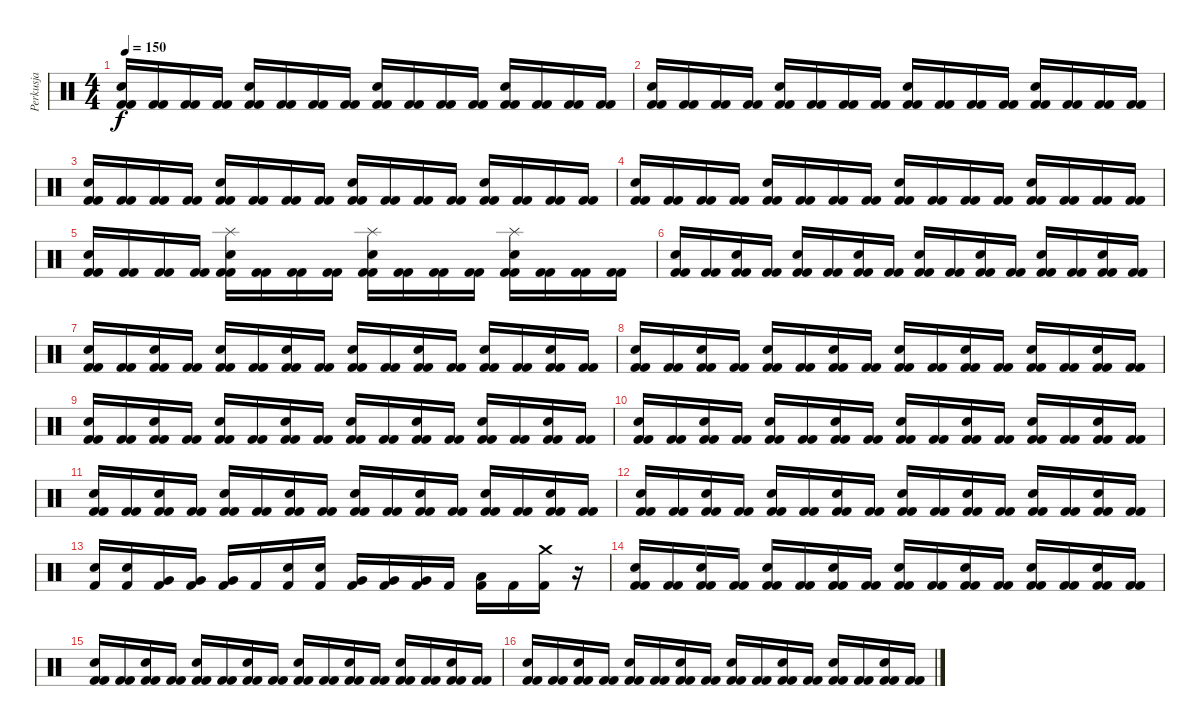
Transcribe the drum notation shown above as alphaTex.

\track ("Perkusja" "Perkusja") {instrument percussion}
\staff {score}
\articulation defaults
\ts (4 4)
\tempo 150
\clef neutral
\ks c
("Snare (hit) 2" "Kick (hit) 2" "Kick (hit) 2").16{dy f} ("Kick (hit) 2" "Kick (hit) 2").16 ("Kick (hit) 2" "Kick (hit) 2").16 ("Kick (hit) 2" "Kick (hit) 2").16 ("Electric Snare (hit)" "Kick (hit) 2" "Kick (hit) 2").16 ("Kick (hit) 2" "Kick (hit) 2").16 ("Kick (hit) 2" "Kick (hit) 2").16 ("Kick (hit) 2" "Kick (hit) 2").16 ("Snare (hit) 2" "Kick (hit) 2" "Kick (hit) 2").16 ("Kick (hit) 2" "Kick (hit) 2").16 ("Kick (hit) 2" "Kick (hit) 2").16 ("Kick (hit) 2" "Kick (hit) 2").16 ("Electric Snare (hit)" "Kick (hit) 2" "Kick (hit) 2").16 ("Kick (hit) 2" "Kick (hit) 2").16 ("Kick (hit) 2" "Kick (hit) 2").16 ("Kick (hit) 2" "Kick (hit) 2").16 |
("Snare (hit) 2" "Kick (hit) 2" "Kick (hit) 2").16 ("Kick (hit) 2" "Kick (hit) 2").16 ("Kick (hit) 2" "Kick (hit) 2").16 ("Kick (hit) 2" "Kick (hit) 2").16 ("Electric Snare (hit)" "Kick (hit) 2" "Kick (hit) 2").16 ("Kick (hit) 2" "Kick (hit) 2").16 ("Kick (hit) 2" "Kick (hit) 2").16 ("Kick (hit) 2" "Kick (hit) 2").16 ("Snare (hit) 2" "Kick (hit) 2" "Kick (hit) 2").16 ("Kick (hit) 2" "Kick (hit) 2").16 ("Kick (hit) 2" "Kick (hit) 2").16 ("Kick (hit) 2" "Kick (hit) 2").16 ("Electric Snare (hit)" "Kick (hit) 2" "Kick (hit) 2").16 ("Kick (hit) 2" "Kick (hit) 2").16 ("Kick (hit) 2" "Kick (hit) 2").16 ("Kick (hit) 2" "Kick (hit) 2").16 |
("Snare (hit) 2" "Kick (hit) 2" "Kick (hit) 2").16 ("Kick (hit) 2" "Kick (hit) 2").16 ("Kick (hit) 2" "Kick (hit) 2").16 ("Kick (hit) 2" "Kick (hit) 2").16 ("Electric Snare (hit)" "Kick (hit) 2" "Kick (hit) 2").16 ("Kick (hit) 2" "Kick (hit) 2").16 ("Kick (hit) 2" "Kick (hit) 2").16 ("Kick (hit) 2" "Kick (hit) 2").16 ("Snare (hit) 2" "Kick (hit) 2" "Kick (hit) 2").16 ("Kick (hit) 2" "Kick (hit) 2").16 ("Kick (hit) 2" "Kick (hit) 2").16 ("Kick (hit) 2" "Kick (hit) 2").16 ("Electric Snare (hit)" "Kick (hit) 2" "Kick (hit) 2").16 ("Kick (hit) 2" "Kick (hit) 2").16 ("Kick (hit) 2" "Kick (hit) 2").16 ("Kick (hit) 2" "Kick (hit) 2").16 |
("Snare (hit) 2" "Kick (hit) 2" "Kick (hit) 2").16 ("Kick (hit) 2" "Kick (hit) 2").16 ("Kick (hit) 2" "Kick (hit) 2").16 ("Kick (hit) 2" "Kick (hit) 2").16 ("Electric Snare (hit)" "Kick (hit) 2" "Kick (hit) 2").16 ("Kick (hit) 2" "Kick (hit) 2").16 ("Kick (hit) 2" "Kick (hit) 2").16 ("Kick (hit) 2" "Kick (hit) 2").16 ("Snare (hit) 2" "Kick (hit) 2" "Kick (hit) 2").16 ("Kick (hit) 2" "Kick (hit) 2").16 ("Kick (hit) 2" "Kick (hit) 2").16 ("Kick (hit) 2" "Kick (hit) 2").16 ("Electric Snare (hit)" "Kick (hit) 2" "Kick (hit) 2").16 ("Kick (hit) 2" "Kick (hit) 2").16 ("Kick (hit) 2" "Kick (hit) 2").16 ("Kick (hit) 2" "Kick (hit) 2").16 |
("Snare (hit) 2" "Kick (hit) 2" "Kick (hit) 2").16 ("Kick (hit) 2" "Kick (hit) 2").16 ("Kick (hit) 2" "Kick (hit) 2").16 ("Kick (hit) 2" "Kick (hit) 2").16 ("Splash (hit)" "Electric Snare (hit)" "Kick (hit) 2" "Kick (hit) 2").16 ("Kick (hit) 2" "Kick (hit) 2").16 ("Kick (hit) 2" "Kick (hit) 2").16 ("Kick (hit) 2" "Kick (hit) 2").16 ("Splash (hit)" "Snare (hit) 2" "Kick (hit) 2" "Kick (hit) 2").16 ("Kick (hit) 2" "Kick (hit) 2").16 ("Kick (hit) 2" "Kick (hit) 2").16 ("Kick (hit) 2" "Kick (hit) 2").16 ("Splash (hit)" "Electric Snare (hit)" "Kick (hit) 2" "Kick (hit) 2").16 ("Kick (hit) 2" "Kick (hit) 2").16 ("Kick (hit) 2" "Kick (hit) 2").16 ("Kick (hit) 2" "Kick (hit) 2").16 |
("Snare (hit) 2" "Kick (hit) 2" "Kick (hit) 2").16 ("Kick (hit) 2" "Kick (hit) 2").16 ("Snare (hit) 2" "Kick (hit) 2" "Kick (hit) 2").16 ("Kick (hit) 2" "Kick (hit) 2").16 ("Snare (hit) 2" "Kick (hit) 2" "Kick (hit) 2").16 ("Kick (hit) 2" "Kick (hit) 2").16 ("Snare (hit) 2" "Kick (hit) 2" "Kick (hit) 2").16 ("Kick (hit) 2" "Kick (hit) 2").16 ("Snare (hit) 2" "Kick (hit) 2" "Kick (hit) 2").16 ("Kick (hit) 2" "Kick (hit) 2").16 ("Snare (hit) 2" "Kick (hit) 2" "Kick (hit) 2").16 ("Kick (hit) 2" "Kick (hit) 2").16 ("Snare (hit) 2" "Kick (hit) 2" "Kick (hit) 2").16 ("Kick (hit) 2" "Kick (hit) 2").16 ("Snare (hit) 2" "Kick (hit) 2" "Kick (hit) 2").16 ("Kick (hit) 2" "Kick (hit) 2").16 |
("Snare (hit) 2" "Kick (hit) 2" "Kick (hit) 2").16 ("Kick (hit) 2" "Kick (hit) 2").16 ("Snare (hit) 2" "Kick (hit) 2" "Kick (hit) 2").16 ("Kick (hit) 2" "Kick (hit) 2").16 ("Snare (hit) 2" "Kick (hit) 2" "Kick (hit) 2").16 ("Kick (hit) 2" "Kick (hit) 2").16 ("Snare (hit) 2" "Kick (hit) 2" "Kick (hit) 2").16 ("Kick (hit) 2" "Kick (hit) 2").16 ("Snare (hit) 2" "Kick (hit) 2" "Kick (hit) 2").16 ("Kick (hit) 2" "Kick (hit) 2").16 ("Snare (hit) 2" "Kick (hit) 2" "Kick (hit) 2").16 ("Kick (hit) 2" "Kick (hit) 2").16 ("Snare (hit) 2" "Kick (hit) 2" "Kick (hit) 2").16 ("Kick (hit) 2" "Kick (hit) 2").16 ("Snare (hit) 2" "Kick (hit) 2" "Kick (hit) 2").16 ("Kick (hit) 2" "Kick (hit) 2").16 |
("Snare (hit) 2" "Kick (hit) 2" "Kick (hit) 2").16 ("Kick (hit) 2" "Kick (hit) 2").16 ("Snare (hit) 2" "Kick (hit) 2" "Kick (hit) 2").16 ("Kick (hit) 2" "Kick (hit) 2").16 ("Snare (hit) 2" "Kick (hit) 2" "Kick (hit) 2").16 ("Kick (hit) 2" "Kick (hit) 2").16 ("Snare (hit) 2" "Kick (hit) 2" "Kick (hit) 2").16 ("Kick (hit) 2" "Kick (hit) 2").16 ("Snare (hit) 2" "Kick (hit) 2" "Kick (hit) 2").16 ("Kick (hit) 2" "Kick (hit) 2").16 ("Snare (hit) 2" "Kick (hit) 2" "Kick (hit) 2").16 ("Kick (hit) 2" "Kick (hit) 2").16 ("Snare (hit) 2" "Kick (hit) 2" "Kick (hit) 2").16 ("Kick (hit) 2" "Kick (hit) 2").16 ("Snare (hit) 2" "Kick (hit) 2" "Kick (hit) 2").16 ("Kick (hit) 2" "Kick (hit) 2").16 |
("Snare (hit) 2" "Kick (hit) 2" "Kick (hit) 2").16 ("Kick (hit) 2" "Kick (hit) 2").16 ("Snare (hit) 2" "Kick (hit) 2" "Kick (hit) 2").16 ("Kick (hit) 2" "Kick (hit) 2").16 ("Snare (hit) 2" "Kick (hit) 2" "Kick (hit) 2").16 ("Kick (hit) 2" "Kick (hit) 2").16 ("Snare (hit) 2" "Kick (hit) 2" "Kick (hit) 2").16 ("Kick (hit) 2" "Kick (hit) 2").16 ("Snare (hit) 2" "Kick (hit) 2" "Kick (hit) 2").16 ("Kick (hit) 2" "Kick (hit) 2").16 ("Snare (hit) 2" "Kick (hit) 2" "Kick (hit) 2").16 ("Kick (hit) 2" "Kick (hit) 2").16 ("Snare (hit) 2" "Kick (hit) 2" "Kick (hit) 2").16 ("Kick (hit) 2" "Kick (hit) 2").16 ("Snare (hit) 2" "Kick (hit) 2" "Kick (hit) 2").16 ("Kick (hit) 2" "Kick (hit) 2").16 |
("Snare (hit) 2" "Kick (hit) 2" "Kick (hit) 2").16 ("Kick (hit) 2" "Kick (hit) 2").16 ("Snare (hit) 2" "Kick (hit) 2" "Kick (hit) 2").16 ("Kick (hit) 2" "Kick (hit) 2").16 ("Snare (hit) 2" "Kick (hit) 2" "Kick (hit) 2").16 ("Kick (hit) 2" "Kick (hit) 2").16 ("Snare (hit) 2" "Kick (hit) 2" "Kick (hit) 2").16 ("Kick (hit) 2" "Kick (hit) 2").16 ("Snare (hit) 2" "Kick (hit) 2" "Kick (hit) 2").16 ("Kick (hit) 2" "Kick (hit) 2").16 ("Snare (hit) 2" "Kick (hit) 2" "Kick (hit) 2").16 ("Kick (hit) 2" "Kick (hit) 2").16 ("Snare (hit) 2" "Kick (hit) 2" "Kick (hit) 2").16 ("Kick (hit) 2" "Kick (hit) 2").16 ("Snare (hit) 2" "Kick (hit) 2" "Kick (hit) 2").16 ("Kick (hit) 2" "Kick (hit) 2").16 |
("Snare (hit) 2" "Kick (hit) 2" "Kick (hit) 2").16 ("Kick (hit) 2" "Kick (hit) 2").16 ("Snare (hit) 2" "Kick (hit) 2" "Kick (hit) 2").16 ("Kick (hit) 2" "Kick (hit) 2").16 ("Snare (hit) 2" "Kick (hit) 2" "Kick (hit) 2").16 ("Kick (hit) 2" "Kick (hit) 2").16 ("Snare (hit) 2" "Kick (hit) 2" "Kick (hit) 2").16 ("Kick (hit) 2" "Kick (hit) 2").16 ("Snare (hit) 2" "Kick (hit) 2" "Kick (hit) 2").16 ("Kick (hit) 2" "Kick (hit) 2").16 ("Snare (hit) 2" "Kick (hit) 2" "Kick (hit) 2").16 ("Kick (hit) 2" "Kick (hit) 2").16 ("Snare (hit) 2" "Kick (hit) 2" "Kick (hit) 2").16 ("Kick (hit) 2" "Kick (hit) 2").16 ("Snare (hit) 2" "Kick (hit) 2" "Kick (hit) 2").16 ("Kick (hit) 2" "Kick (hit) 2").16 |
("Snare (hit) 2" "Kick (hit) 2" "Kick (hit) 2").16 ("Kick (hit) 2" "Kick (hit) 2").16 ("Snare (hit) 2" "Kick (hit) 2" "Kick (hit) 2").16 ("Kick (hit) 2" "Kick (hit) 2").16 ("Snare (hit) 2" "Kick (hit) 2" "Kick (hit) 2").16 ("Kick (hit) 2" "Kick (hit) 2").16 ("Snare (hit) 2" "Kick (hit) 2" "Kick (hit) 2").16 ("Kick (hit) 2" "Kick (hit) 2").16 ("Snare (hit) 2" "Kick (hit) 2" "Kick (hit) 2").16 ("Kick (hit) 2" "Kick (hit) 2").16 ("Snare (hit) 2" "Kick (hit) 2" "Kick (hit) 2").16 ("Kick (hit) 2" "Kick (hit) 2").16 ("Snare (hit) 2" "Kick (hit) 2" "Kick (hit) 2").16 ("Kick (hit) 2" "Kick (hit) 2").16 ("Snare (hit) 2" "Kick (hit) 2" "Kick (hit) 2").16 ("Kick (hit) 2" "Kick (hit) 2").16 |
("Electric Snare (hit)" "Kick (hit) 2").16 ("Snare (hit) 2" "Kick (hit) 2").16 ("Very Low Tom (hit)" "Kick (hit) 2").16 ("Very Low Tom (hit)" "Kick (hit) 2").16 ("Very Low Tom (hit)" "Kick (hit) 2").16 "Kick (hit) 2".16 ("Electric Snare (hit)" "Kick (hit) 2").16 ("Snare (hit) 2" "Kick (hit) 2").16 ("Very Low Tom (hit)" "Kick (hit) 2").16 ("Very Low Tom (hit)" "Kick (hit) 2").16 ("Very Low Tom (hit)" "Kick (hit) 2").16 "Kick (hit) 2".16 ("Low Tom (hit)" "Kick (hit) 2").16 "Kick (hit) 2".16 ("Crash medium (hit)" "Kick (hit) 2").16 r.16 |
("Snare (hit) 2" "Kick (hit) 2" "Kick (hit) 2").16 ("Kick (hit) 2" "Kick (hit) 2").16 ("Snare (hit) 2" "Kick (hit) 2" "Kick (hit) 2").16 ("Kick (hit) 2" "Kick (hit) 2").16 ("Snare (hit) 2" "Kick (hit) 2" "Kick (hit) 2").16 ("Kick (hit) 2" "Kick (hit) 2").16 ("Snare (hit) 2" "Kick (hit) 2" "Kick (hit) 2").16 ("Kick (hit) 2" "Kick (hit) 2").16 ("Snare (hit) 2" "Kick (hit) 2" "Kick (hit) 2").16 ("Kick (hit) 2" "Kick (hit) 2").16 ("Snare (hit) 2" "Kick (hit) 2" "Kick (hit) 2").16 ("Kick (hit) 2" "Kick (hit) 2").16 ("Snare (hit) 2" "Kick (hit) 2" "Kick (hit) 2").16 ("Kick (hit) 2" "Kick (hit) 2").16 ("Snare (hit) 2" "Kick (hit) 2" "Kick (hit) 2").16 ("Kick (hit) 2" "Kick (hit) 2").16 |
("Snare (hit) 2" "Kick (hit) 2" "Kick (hit) 2").16 ("Kick (hit) 2" "Kick (hit) 2").16 ("Snare (hit) 2" "Kick (hit) 2" "Kick (hit) 2").16 ("Kick (hit) 2" "Kick (hit) 2").16 ("Snare (hit) 2" "Kick (hit) 2" "Kick (hit) 2").16 ("Kick (hit) 2" "Kick (hit) 2").16 ("Snare (hit) 2" "Kick (hit) 2" "Kick (hit) 2").16 ("Kick (hit) 2" "Kick (hit) 2").16 ("Snare (hit) 2" "Kick (hit) 2" "Kick (hit) 2").16 ("Kick (hit) 2" "Kick (hit) 2").16 ("Snare (hit) 2" "Kick (hit) 2" "Kick (hit) 2").16 ("Kick (hit) 2" "Kick (hit) 2").16 ("Snare (hit) 2" "Kick (hit) 2" "Kick (hit) 2").16 ("Kick (hit) 2" "Kick (hit) 2").16 ("Snare (hit) 2" "Kick (hit) 2" "Kick (hit) 2").16 ("Kick (hit) 2" "Kick (hit) 2").16 |
("Snare (hit) 2" "Kick (hit) 2" "Kick (hit) 2").16 ("Kick (hit) 2" "Kick (hit) 2").16 ("Snare (hit) 2" "Kick (hit) 2" "Kick (hit) 2").16 ("Kick (hit) 2" "Kick (hit) 2").16 ("Snare (hit) 2" "Kick (hit) 2" "Kick (hit) 2").16 ("Kick (hit) 2" "Kick (hit) 2").16 ("Snare (hit) 2" "Kick (hit) 2" "Kick (hit) 2").16 ("Kick (hit) 2" "Kick (hit) 2").16 ("Snare (hit) 2" "Kick (hit) 2" "Kick (hit) 2").16 ("Kick (hit) 2" "Kick (hit) 2").16 ("Snare (hit) 2" "Kick (hit) 2" "Kick (hit) 2").16 ("Kick (hit) 2" "Kick (hit) 2").16 ("Snare (hit) 2" "Kick (hit) 2" "Kick (hit) 2").16 ("Kick (hit) 2" "Kick (hit) 2").16 ("Snare (hit) 2" "Kick (hit) 2" "Kick (hit) 2").16 ("Kick (hit) 2" "Kick (hit) 2").16
